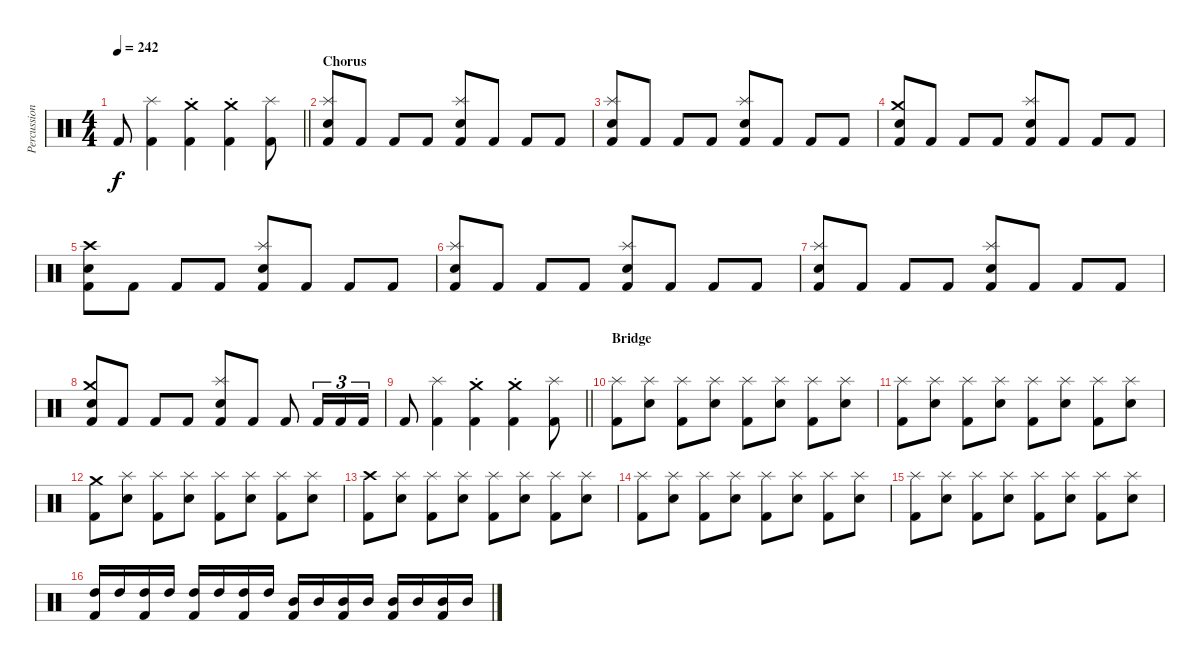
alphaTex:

\track ("Percussion" "Percussion") {instrument percussion}
\staff {score}
\articulation defaults
\ts (4 4)
\tempo 242
\clef neutral
\barLineRight lightlight
\ks c "Kick (hit) 2".8{dy f}
("Splash (hit)" "Kick (hit) 2").4 ("Crash medium (hit)"{st} "Kick (hit) 2").4 ("Crash medium (hit)"{st} "Kick (hit) 2").4 ("Splash (hit)" "Kick (hit) 2").8 |
\section ("" "Chorus ")
("Splash (hit)" "Snare (hit) 2" "Kick (hit) 2").8 "Kick (hit) 2".8 "Kick (hit) 2".8 "Kick (hit) 2".8 ("Splash (hit)" "Snare (hit) 2" "Kick (hit) 2").8 "Kick (hit) 2".8 "Kick (hit) 2".8 "Kick (hit) 2".8 |
("Splash (hit)" "Snare (hit) 2" "Kick (hit) 2").8 "Kick (hit) 2".8 "Kick (hit) 2".8 "Kick (hit) 2".8 ("Splash (hit)" "Snare (hit) 2" "Kick (hit) 2").8 "Kick (hit) 2".8 "Kick (hit) 2".8 "Kick (hit) 2".8 |
("Crash medium (hit)" "Snare (hit) 2" "Kick (hit) 2").8 "Kick (hit) 2".8 "Kick (hit) 2".8 "Kick (hit) 2".8 ("Splash (hit)" "Snare (hit) 2" "Kick (hit) 2").8 "Kick (hit) 2".8 "Kick (hit) 2".8 "Kick (hit) 2".8 |
("Crash high (hit)" "Snare (hit) 2" "Kick (hit) 2").8 "Kick (hit) 2".8 "Kick (hit) 2".8 "Kick (hit) 2".8 ("Splash (hit)" "Snare (hit) 2" "Kick (hit) 2").8 "Kick (hit) 2".8 "Kick (hit) 2".8 "Kick (hit) 2".8 |
("Splash (hit)" "Snare (hit) 2" "Kick (hit) 2").8 "Kick (hit) 2".8 "Kick (hit) 2".8 "Kick (hit) 2".8 ("Splash (hit)" "Snare (hit) 2" "Kick (hit) 2").8 "Kick (hit) 2".8 "Kick (hit) 2".8 "Kick (hit) 2".8 |
("Splash (hit)" "Snare (hit) 2" "Kick (hit) 2").8 "Kick (hit) 2".8 "Kick (hit) 2".8 "Kick (hit) 2".8 ("Splash (hit)" "Snare (hit) 2" "Kick (hit) 2").8 "Kick (hit) 2".8 "Kick (hit) 2".8 "Kick (hit) 2".8 |
("Crash medium (hit)" "Snare (hit) 2" "Kick (hit) 2").8 "Kick (hit) 2".8 "Kick (hit) 2".8 "Kick (hit) 2".8 ("Splash (hit)" "Snare (hit) 2" "Kick (hit) 2").8 "Kick (hit) 2".8 "Kick (hit) 2".8 "Kick (hit) 2".16{tu (3 2)} "Kick (hit) 2".16{tu (3 2)} "Kick (hit) 2".16{tu (3 2)} |
\barLineRight lightlight "Kick (hit) 2".8
("Splash (hit)" "Kick (hit) 2").4 ("Crash medium (hit)"{st} "Kick (hit) 2").4 ("Crash medium (hit)"{st} "Kick (hit) 2").4 ("Splash (hit)" "Kick (hit) 2").8 |
\section ("" "Bridge")
("Splash (hit)" "Kick (hit) 2").8 ("Splash (hit)" "Snare (hit) 2").8 ("Splash (hit)" "Kick (hit) 2").8 ("Splash (hit)" "Snare (hit) 2").8 ("Splash (hit)" "Kick (hit) 2").8 ("Splash (hit)" "Snare (hit) 2").8 ("Splash (hit)" "Kick (hit) 2").8 ("Splash (hit)" "Snare (hit) 2").8 |
("Splash (hit)" "Kick (hit) 2").8 ("Splash (hit)" "Snare (hit) 2").8 ("Splash (hit)" "Kick (hit) 2").8 ("Splash (hit)" "Snare (hit) 2").8 ("Splash (hit)" "Kick (hit) 2").8 ("Splash (hit)" "Snare (hit) 2").8 ("Splash (hit)" "Kick (hit) 2").8 ("Splash (hit)" "Snare (hit) 2").8 |
("Crash medium (hit)" "Kick (hit) 2").8 ("Splash (hit)" "Snare (hit) 2").8 ("Splash (hit)" "Kick (hit) 2").8 ("Splash (hit)" "Snare (hit) 2").8 ("Splash (hit)" "Kick (hit) 2").8 ("Splash (hit)" "Snare (hit) 2").8 ("Splash (hit)" "Kick (hit) 2").8 ("Splash (hit)" "Snare (hit) 2").8 |
("Crash high (hit)" "Kick (hit) 2").8 ("Splash (hit)" "Snare (hit) 2").8 ("Splash (hit)" "Kick (hit) 2").8 ("Splash (hit)" "Snare (hit) 2").8 ("Splash (hit)" "Kick (hit) 2").8 ("Splash (hit)" "Snare (hit) 2").8 ("Splash (hit)" "Kick (hit) 2").8 ("Splash (hit)" "Snare (hit) 2").8 |
("Splash (hit)" "Kick (hit) 2").8 ("Splash (hit)" "Snare (hit) 2").8 ("Splash (hit)" "Kick (hit) 2").8 ("Splash (hit)" "Snare (hit) 2").8 ("Splash (hit)" "Kick (hit) 2").8 ("Splash (hit)" "Snare (hit) 2").8 ("Splash (hit)" "Kick (hit) 2").8 ("Splash (hit)" "Snare (hit) 2").8 |
("Splash (hit)" "Kick (hit) 2").8 ("Splash (hit)" "Snare (hit) 2").8 ("Splash (hit)" "Kick (hit) 2").8 ("Splash (hit)" "Snare (hit) 2").8 ("Splash (hit)" "Kick (hit) 2").8 ("Splash (hit)" "Snare (hit) 2").8 ("Splash (hit)" "Kick (hit) 2").8 ("Splash (hit)" "Snare (hit) 2").8 |
("High Tom (hit)" "Kick (hit) 2").16 "High Tom (hit)".16 ("High Tom (hit)" "Kick (hit) 2").16 "High Tom (hit)".16 ("High Tom (hit)" "Kick (hit) 2").16 "High Tom (hit)".16 ("High Tom (hit)" "Kick (hit) 2").16 "High Tom (hit)".16 ("Mid Tom (hit)" "Kick (hit) 2").16 "Mid Tom (hit)".16 ("Mid Tom (hit)" "Kick (hit) 2").16 "Mid Tom (hit)".16 ("Mid Tom (hit)" "Kick (hit) 2").16 "Mid Tom (hit)".16 ("Mid Tom (hit)" "Kick (hit) 2").16 "Mid Tom (hit)".16
